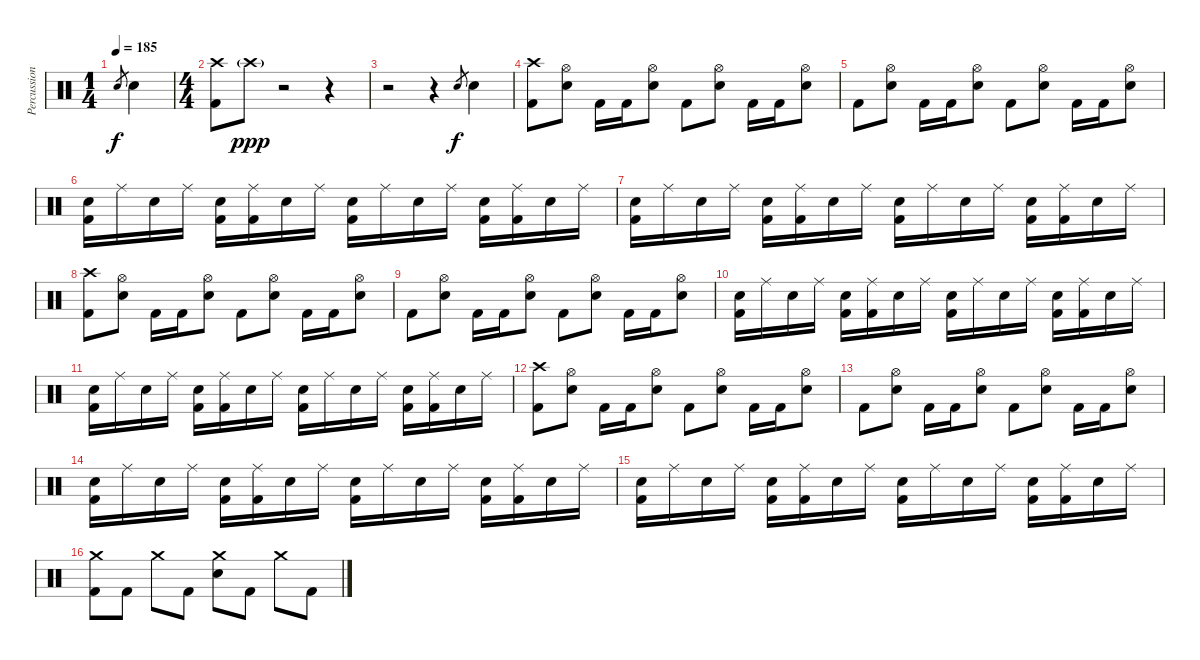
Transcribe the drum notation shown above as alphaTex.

\track ("Percussion" "Percussion") {instrument percussion}
\staff {score}
\articulation defaults
\ts (1 4)
\tempo 185
\clef neutral
\ks c "Electric Snare (hit)".8{gr dy f} "Electric Snare (hit)".4
|
\ts (4 4)
("Kick (hit) 2" "Crash high (hit)").8 "Crash high (hit)"{g}.8{dy ppp} r.2 r.4 |
r.2 r.4 "Electric Snare (hit)".8{gr dy f} "Electric Snare (hit)".4 |
("Kick (hit) 2" "Crash high (hit)").8 ("Electric Snare (hit)" "Hi-Hat (open)").8 "Kick (hit) 2".16 "Kick (hit) 2".16 ("Electric Snare (hit)" "Hi-Hat (open)").8 "Kick (hit) 2".8 ("Electric Snare (hit)" "Hi-Hat (open)").8 "Kick (hit) 2".16 "Kick (hit) 2".16 ("Electric Snare (hit)" "Hi-Hat (open)").8 |
"Kick (hit) 2".8 ("Electric Snare (hit)" "Hi-Hat (open)").8 "Kick (hit) 2".16 "Kick (hit) 2".16 ("Electric Snare (hit)" "Hi-Hat (open)").8 "Kick (hit) 2".8 ("Electric Snare (hit)" "Hi-Hat (open)").8 "Kick (hit) 2".16 "Kick (hit) 2".16 ("Electric Snare (hit)" "Hi-Hat (open)").8 |
("Kick (hit) 2" "Electric Snare (hit)").16 "Ride (middle)".16 "Electric Snare (hit)".16 "Ride (middle)".16 ("Kick (hit) 2" "Electric Snare (hit)").16 ("Kick (hit) 2" "Ride (middle)").16 "Electric Snare (hit)".16 "Ride (middle)".16 ("Kick (hit) 2" "Electric Snare (hit)").16 "Ride (middle)".16 "Electric Snare (hit)".16 "Ride (middle)".16 ("Kick (hit) 2" "Electric Snare (hit)").16 ("Kick (hit) 2" "Ride (middle)").16 "Electric Snare (hit)".16 "Ride (middle)".16 |
("Kick (hit) 2" "Electric Snare (hit)").16 "Ride (middle)".16 "Electric Snare (hit)".16 "Ride (middle)".16 ("Kick (hit) 2" "Electric Snare (hit)").16 ("Kick (hit) 2" "Ride (middle)").16 "Electric Snare (hit)".16 "Ride (middle)".16 ("Kick (hit) 2" "Electric Snare (hit)").16 "Ride (middle)".16 "Electric Snare (hit)".16 "Ride (middle)".16 ("Kick (hit) 2" "Electric Snare (hit)").16 ("Kick (hit) 2" "Ride (middle)").16 "Electric Snare (hit)".16 "Ride (middle)".16 |
("Kick (hit) 2" "Crash high (hit)").8 ("Electric Snare (hit)" "Hi-Hat (open)").8 "Kick (hit) 2".16 "Kick (hit) 2".16 ("Electric Snare (hit)" "Hi-Hat (open)").8 "Kick (hit) 2".8 ("Electric Snare (hit)" "Hi-Hat (open)").8 "Kick (hit) 2".16 "Kick (hit) 2".16 ("Electric Snare (hit)" "Hi-Hat (open)").8 |
"Kick (hit) 2".8 ("Electric Snare (hit)" "Hi-Hat (open)").8 "Kick (hit) 2".16 "Kick (hit) 2".16 ("Electric Snare (hit)" "Hi-Hat (open)").8 "Kick (hit) 2".8 ("Electric Snare (hit)" "Hi-Hat (open)").8 "Kick (hit) 2".16 "Kick (hit) 2".16 ("Electric Snare (hit)" "Hi-Hat (open)").8 |
("Kick (hit) 2" "Electric Snare (hit)").16 "Ride (middle)".16 "Electric Snare (hit)".16 "Ride (middle)".16 ("Kick (hit) 2" "Electric Snare (hit)").16 ("Kick (hit) 2" "Ride (middle)").16 "Electric Snare (hit)".16 "Ride (middle)".16 ("Kick (hit) 2" "Electric Snare (hit)").16 "Ride (middle)".16 "Electric Snare (hit)".16 "Ride (middle)".16 ("Kick (hit) 2" "Electric Snare (hit)").16 ("Kick (hit) 2" "Ride (middle)").16 "Electric Snare (hit)".16 "Ride (middle)".16 |
("Kick (hit) 2" "Electric Snare (hit)").16 "Ride (middle)".16 "Electric Snare (hit)".16 "Ride (middle)".16 ("Kick (hit) 2" "Electric Snare (hit)").16 ("Kick (hit) 2" "Ride (middle)").16 "Electric Snare (hit)".16 "Ride (middle)".16 ("Kick (hit) 2" "Electric Snare (hit)").16 "Ride (middle)".16 "Electric Snare (hit)".16 "Ride (middle)".16 ("Kick (hit) 2" "Electric Snare (hit)").16 ("Kick (hit) 2" "Ride (middle)").16 "Electric Snare (hit)".16 "Ride (middle)".16 |
("Kick (hit) 2" "Crash high (hit)").8 ("Electric Snare (hit)" "Hi-Hat (open)").8 "Kick (hit) 2".16 "Kick (hit) 2".16 ("Electric Snare (hit)" "Hi-Hat (open)").8 "Kick (hit) 2".8 ("Electric Snare (hit)" "Hi-Hat (open)").8 "Kick (hit) 2".16 "Kick (hit) 2".16 ("Electric Snare (hit)" "Hi-Hat (open)").8 |
"Kick (hit) 2".8 ("Electric Snare (hit)" "Hi-Hat (open)").8 "Kick (hit) 2".16 "Kick (hit) 2".16 ("Electric Snare (hit)" "Hi-Hat (open)").8 "Kick (hit) 2".8 ("Electric Snare (hit)" "Hi-Hat (open)").8 "Kick (hit) 2".16 "Kick (hit) 2".16 ("Electric Snare (hit)" "Hi-Hat (open)").8 |
("Kick (hit) 2" "Electric Snare (hit)").16 "Ride (middle)".16 "Electric Snare (hit)".16 "Ride (middle)".16 ("Kick (hit) 2" "Electric Snare (hit)").16 ("Kick (hit) 2" "Ride (middle)").16 "Electric Snare (hit)".16 "Ride (middle)".16 ("Kick (hit) 2" "Electric Snare (hit)").16 "Ride (middle)".16 "Electric Snare (hit)".16 "Ride (middle)".16 ("Kick (hit) 2" "Electric Snare (hit)").16 ("Kick (hit) 2" "Ride (middle)").16 "Electric Snare (hit)".16 "Ride (middle)".16 |
("Kick (hit) 2" "Electric Snare (hit)").16 "Ride (middle)".16 "Electric Snare (hit)".16 "Ride (middle)".16 ("Kick (hit) 2" "Electric Snare (hit)").16 ("Kick (hit) 2" "Ride (middle)").16 "Electric Snare (hit)".16 "Ride (middle)".16 ("Kick (hit) 2" "Electric Snare (hit)").16 "Ride (middle)".16 "Electric Snare (hit)".16 "Ride (middle)".16 ("Kick (hit) 2" "Electric Snare (hit)").16 ("Kick (hit) 2" "Ride (middle)").16 "Electric Snare (hit)".16 "Ride (middle)".16 |
("Kick (hit) 2" "Crash medium (hit)").8 "Kick (hit) 2".8 "Crash medium (hit)".8 "Kick (hit) 2".8 ("Electric Snare (hit)" "Crash medium (hit)").8 "Kick (hit) 2".8 "Crash medium (hit)".8 "Kick (hit) 2".8
